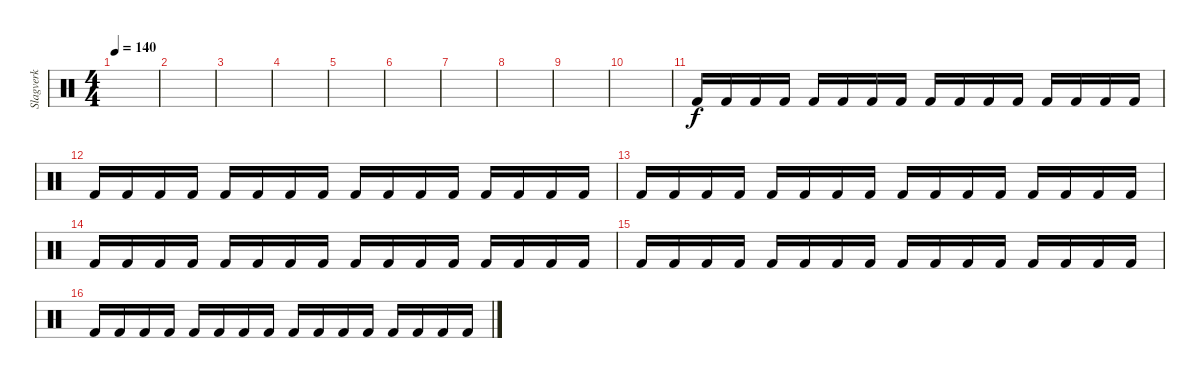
\track ("Slagverk" "Slagverk") {instrument percussion}
\staff {score}
\articulation defaults
\ts (4 4)
\tempo 140
\clef neutral
\ks c
|
|
|
|
|
|
|
|
|
|
"Kick (hit) 2".16 "Kick (hit) 2".16 "Kick (hit) 2".16 "Kick (hit) 2".16 "Kick (hit) 2".16 "Kick (hit) 2".16 "Kick (hit) 2".16 "Kick (hit) 2".16 "Kick (hit) 2".16 "Kick (hit) 2".16 "Kick (hit) 2".16 "Kick (hit) 2".16 "Kick (hit) 2".16 "Kick (hit) 2".16 "Kick (hit) 2".16 "Kick (hit) 2".16 |
"Kick (hit) 2".16 "Kick (hit) 2".16 "Kick (hit) 2".16 "Kick (hit) 2".16 "Kick (hit) 2".16 "Kick (hit) 2".16 "Kick (hit) 2".16 "Kick (hit) 2".16 "Kick (hit) 2".16 "Kick (hit) 2".16 "Kick (hit) 2".16 "Kick (hit) 2".16 "Kick (hit) 2".16 "Kick (hit) 2".16 "Kick (hit) 2".16 "Kick (hit) 2".16 |
"Kick (hit) 2".16 "Kick (hit) 2".16 "Kick (hit) 2".16 "Kick (hit) 2".16 "Kick (hit) 2".16 "Kick (hit) 2".16 "Kick (hit) 2".16 "Kick (hit) 2".16 "Kick (hit) 2".16 "Kick (hit) 2".16 "Kick (hit) 2".16 "Kick (hit) 2".16 "Kick (hit) 2".16 "Kick (hit) 2".16 "Kick (hit) 2".16 "Kick (hit) 2".16 |
"Kick (hit) 2".16 "Kick (hit) 2".16 "Kick (hit) 2".16 "Kick (hit) 2".16 "Kick (hit) 2".16 "Kick (hit) 2".16 "Kick (hit) 2".16 "Kick (hit) 2".16 "Kick (hit) 2".16 "Kick (hit) 2".16 "Kick (hit) 2".16 "Kick (hit) 2".16 "Kick (hit) 2".16 "Kick (hit) 2".16 "Kick (hit) 2".16 "Kick (hit) 2".16 |
"Kick (hit) 2".16 "Kick (hit) 2".16 "Kick (hit) 2".16 "Kick (hit) 2".16 "Kick (hit) 2".16 "Kick (hit) 2".16 "Kick (hit) 2".16 "Kick (hit) 2".16 "Kick (hit) 2".16 "Kick (hit) 2".16 "Kick (hit) 2".16 "Kick (hit) 2".16 "Kick (hit) 2".16 "Kick (hit) 2".16 "Kick (hit) 2".16 "Kick (hit) 2".16 |
"Kick (hit) 2".16 "Kick (hit) 2".16 "Kick (hit) 2".16 "Kick (hit) 2".16 "Kick (hit) 2".16 "Kick (hit) 2".16 "Kick (hit) 2".16 "Kick (hit) 2".16 "Kick (hit) 2".16 "Kick (hit) 2".16 "Kick (hit) 2".16 "Kick (hit) 2".16 "Kick (hit) 2".16 "Kick (hit) 2".16 "Kick (hit) 2".16 "Kick (hit) 2".16
